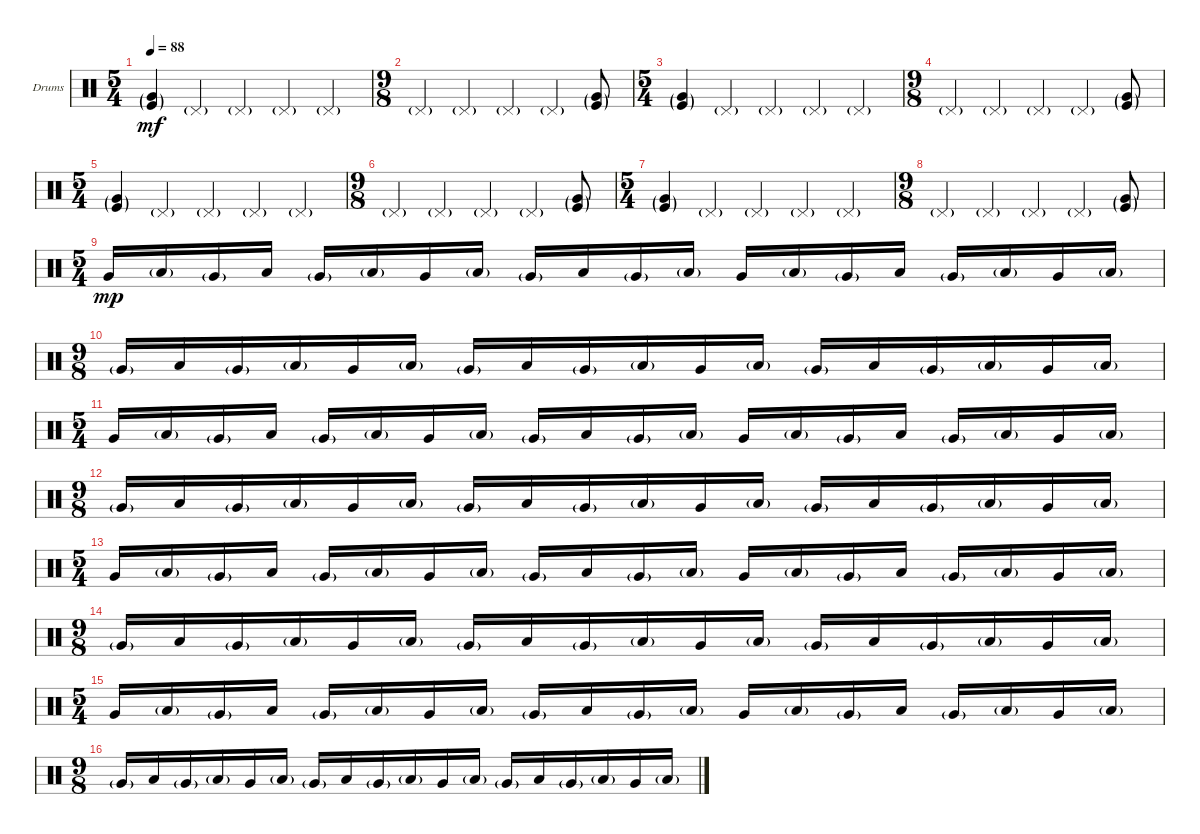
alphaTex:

\defaultSystemsLayout 4
\bracketExtendMode groupsimilarinstruments
\firstSystemTrackNameOrientation horizontal
\otherSystemsTrackNameOrientation horizontal
\track ("Drumkit" "Drums") {instrument percussion}
\staff {score}
\articulation defaults
\ts (5 4)
\tempo 88
\clef neutral
\ks c
("Very Low Tom (hit)"{g} "Kick (hit)"{g}).4{dy mf} "Pedal Hi-Hat (hit)"{g}.4 "Pedal Hi-Hat (hit)"{g}.4 "Pedal Hi-Hat (hit)"{g}.4 "Pedal Hi-Hat (hit)"{g}.4 |
\ts (9 8)
"Pedal Hi-Hat (hit)"{g}.4 "Pedal Hi-Hat (hit)"{g}.4 "Pedal Hi-Hat (hit)"{g}.4 "Pedal Hi-Hat (hit)"{g}.4 ("Kick (hit)"{g} "Very Low Tom (hit)"{g}).8 |
\ts (5 4)
("Very Low Tom (hit)"{g} "Kick (hit)"{g}).4 "Pedal Hi-Hat (hit)"{g}.4 "Pedal Hi-Hat (hit)"{g}.4 "Pedal Hi-Hat (hit)"{g}.4 "Pedal Hi-Hat (hit)"{g}.4 |
\ts (9 8)
"Pedal Hi-Hat (hit)"{g}.4 "Pedal Hi-Hat (hit)"{g}.4 "Pedal Hi-Hat (hit)"{g}.4 "Pedal Hi-Hat (hit)"{g}.4 ("Kick (hit)"{g} "Very Low Tom (hit)"{g}).8 |
\ts (5 4)
("Very Low Tom (hit)"{g} "Kick (hit)"{g}).4 "Pedal Hi-Hat (hit)"{g}.4 "Pedal Hi-Hat (hit)"{g}.4 "Pedal Hi-Hat (hit)"{g}.4 "Pedal Hi-Hat (hit)"{g}.4 |
\ts (9 8)
"Pedal Hi-Hat (hit)"{g}.4 "Pedal Hi-Hat (hit)"{g}.4 "Pedal Hi-Hat (hit)"{g}.4 "Pedal Hi-Hat (hit)"{g}.4 ("Kick (hit)"{g} "Very Low Tom (hit)"{g}).8 |
\ts (5 4)
("Very Low Tom (hit)"{g} "Kick (hit)"{g}).4 "Pedal Hi-Hat (hit)"{g}.4 "Pedal Hi-Hat (hit)"{g}.4 "Pedal Hi-Hat (hit)"{g}.4 "Pedal Hi-Hat (hit)"{g}.4 |
\ts (9 8)
"Pedal Hi-Hat (hit)"{g}.4 "Pedal Hi-Hat (hit)"{g}.4 "Pedal Hi-Hat (hit)"{g}.4 "Pedal Hi-Hat (hit)"{g}.4 ("Kick (hit)"{g} "Very Low Tom (hit)"{g}).8 |
\ts (5 4)
"Very Low Tom (hit)".16{dy mp} "Low Tom (hit)"{g}.16 "Very Low Tom (hit)"{g}.16 "Low Tom (hit)".16 "Very Low Tom (hit)"{g}.16 "Low Tom (hit)"{g}.16 "Very Low Tom (hit)".16 "Low Tom (hit)"{g}.16 "Very Low Tom (hit)"{g}.16 "Low Tom (hit)".16 "Very Low Tom (hit)"{g}.16 "Low Tom (hit)"{g}.16 "Very Low Tom (hit)".16 "Low Tom (hit)"{g}.16 "Very Low Tom (hit)"{g}.16 "Low Tom (hit)".16 "Very Low Tom (hit)"{g}.16 "Low Tom (hit)"{g}.16 "Very Low Tom (hit)".16 "Low Tom (hit)"{g}.16 |
\ts (9 8)
"Very Low Tom (hit)"{g}.16 "Low Tom (hit)".16 "Very Low Tom (hit)"{g}.16 "Low Tom (hit)"{g}.16 "Very Low Tom (hit)".16 "Low Tom (hit)"{g}.16 "Very Low Tom (hit)"{g}.16 "Low Tom (hit)".16 "Very Low Tom (hit)"{g}.16 "Low Tom (hit)"{g}.16 "Very Low Tom (hit)".16 "Low Tom (hit)"{g}.16 "Very Low Tom (hit)"{g}.16 "Low Tom (hit)".16 "Very Low Tom (hit)"{g}.16 "Low Tom (hit)"{g}.16 "Very Low Tom (hit)".16 "Low Tom (hit)"{g}.16 |
\ts (5 4)
\scale
0.267212 "Very Low Tom (hit)".16 "Low Tom (hit)"{g}.16 "Very Low Tom (hit)"{g}.16 "Low Tom (hit)".16 "Very Low Tom (hit)"{g}.16 "Low Tom (hit)"{g}.16 "Very Low Tom (hit)".16 "Low Tom (hit)"{g}.16 "Very Low Tom (hit)"{g}.16 "Low Tom (hit)".16 "Very Low Tom (hit)"{g}.16 "Low Tom (hit)"{g}.16 "Very Low Tom (hit)".16 "Low Tom (hit)"{g}.16 "Very Low Tom (hit)"{g}.16 "Low Tom (hit)".16 "Very Low Tom (hit)"{g}.16 "Low Tom (hit)"{g}.16 "Very Low Tom (hit)".16 "Low Tom (hit)"{g}.16 |
\ts (9 8)
\scale
0.235881 "Very Low Tom (hit)"{g}.16 "Low Tom (hit)".16 "Very Low Tom (hit)"{g}.16 "Low Tom (hit)"{g}.16 "Very Low Tom (hit)".16 "Low Tom (hit)"{g}.16 "Very Low Tom (hit)"{g}.16 "Low Tom (hit)".16 "Very Low Tom (hit)"{g}.16 "Low Tom (hit)"{g}.16 "Very Low Tom (hit)".16 "Low Tom (hit)"{g}.16 "Very Low Tom (hit)"{g}.16 "Low Tom (hit)".16 "Very Low Tom (hit)"{g}.16 "Low Tom (hit)"{g}.16 "Very Low Tom (hit)".16 "Low Tom (hit)"{g}.16 |
\ts (5 4)
\scale
0.261026 "Very Low Tom (hit)".16 "Low Tom (hit)"{g}.16 "Very Low Tom (hit)"{g}.16 "Low Tom (hit)".16 "Very Low Tom (hit)"{g}.16 "Low Tom (hit)"{g}.16 "Very Low Tom (hit)".16 "Low Tom (hit)"{g}.16 "Very Low Tom (hit)"{g}.16 "Low Tom (hit)".16 "Very Low Tom (hit)"{g}.16 "Low Tom (hit)"{g}.16 "Very Low Tom (hit)".16 "Low Tom (hit)"{g}.16 "Very Low Tom (hit)"{g}.16 "Low Tom (hit)".16 "Very Low Tom (hit)"{g}.16 "Low Tom (hit)"{g}.16 "Very Low Tom (hit)".16 "Low Tom (hit)"{g}.16 |
\ts (9 8)
\scale
0.235881 "Very Low Tom (hit)"{g}.16 "Low Tom (hit)".16 "Very Low Tom (hit)"{g}.16 "Low Tom (hit)"{g}.16 "Very Low Tom (hit)".16 "Low Tom (hit)"{g}.16 "Very Low Tom (hit)"{g}.16 "Low Tom (hit)".16 "Very Low Tom (hit)"{g}.16 "Low Tom (hit)"{g}.16 "Very Low Tom (hit)".16 "Low Tom (hit)"{g}.16 "Very Low Tom (hit)"{g}.16 "Low Tom (hit)".16 "Very Low Tom (hit)"{g}.16 "Low Tom (hit)"{g}.16 "Very Low Tom (hit)".16 "Low Tom (hit)"{g}.16 |
\ts (5 4)
"Very Low Tom (hit)".16 "Low Tom (hit)"{g}.16 "Very Low Tom (hit)"{g}.16 "Low Tom (hit)".16 "Very Low Tom (hit)"{g}.16 "Low Tom (hit)"{g}.16 "Very Low Tom (hit)".16 "Low Tom (hit)"{g}.16 "Very Low Tom (hit)"{g}.16 "Low Tom (hit)".16 "Very Low Tom (hit)"{g}.16 "Low Tom (hit)"{g}.16 "Very Low Tom (hit)".16 "Low Tom (hit)"{g}.16 "Very Low Tom (hit)"{g}.16 "Low Tom (hit)".16 "Very Low Tom (hit)"{g}.16 "Low Tom (hit)"{g}.16 "Very Low Tom (hit)".16 "Low Tom (hit)"{g}.16 |
\ts (9 8)
"Very Low Tom (hit)"{g}.16 "Low Tom (hit)".16 "Very Low Tom (hit)"{g}.16 "Low Tom (hit)"{g}.16 "Very Low Tom (hit)".16 "Low Tom (hit)"{g}.16 "Very Low Tom (hit)"{g}.16 "Low Tom (hit)".16 "Very Low Tom (hit)"{g}.16 "Low Tom (hit)"{g}.16 "Very Low Tom (hit)".16 "Low Tom (hit)"{g}.16 "Very Low Tom (hit)"{g}.16 "Low Tom (hit)".16 "Very Low Tom (hit)"{g}.16 "Low Tom (hit)"{g}.16 "Very Low Tom (hit)".16 "Low Tom (hit)"{g}.16
